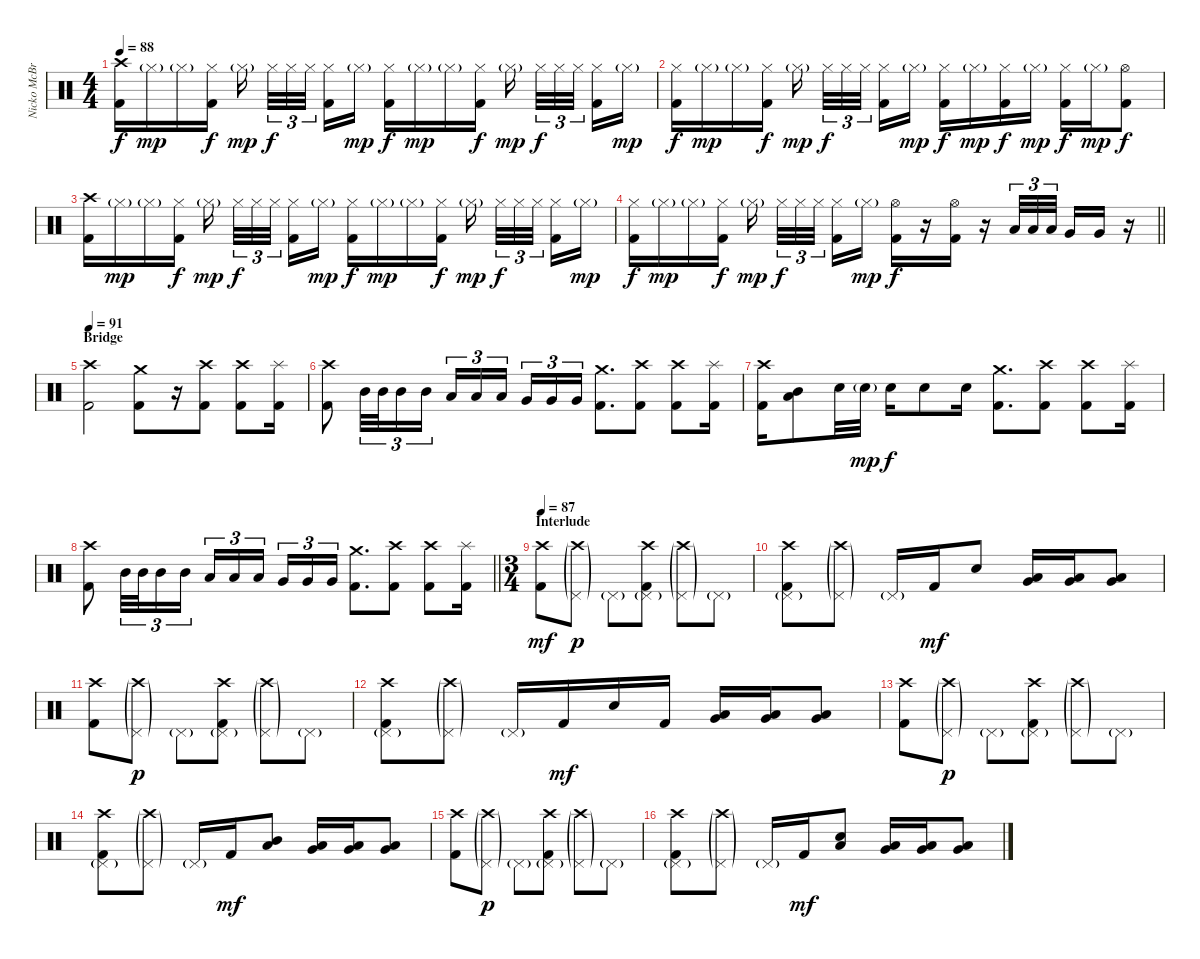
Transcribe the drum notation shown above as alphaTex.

\track ("Nicko McBrian" "Nicko McBr") {instrument percussion}
\staff {score}
\articulation defaults
\ts (4 4)
\tempo 88
\clef neutral
\ks c
("Crash high (hit)" "Kick (hit) 2").16{dy f} "Hi-Hat (closed)"{g}.16{dy mp} "Hi-Hat (closed)"{g}.16 ("Hi-Hat (closed)" "Kick (hit) 2").16{dy f} "Hi-Hat (closed)"{g}.16{dy mp beam splitsecondary} "Hi-Hat (closed)".32{tu (3 2) dy f} "Hi-Hat (closed)".32{tu (3 2)} "Hi-Hat (closed)".32{tu (3 2) beam splitsecondary} ("Hi-Hat (closed)" "Kick (hit) 2").16 "Hi-Hat (closed)"{g}.16{dy mp} ("Hi-Hat (closed)" "Kick (hit) 2").16{dy f} "Hi-Hat (closed)"{g}.16{dy mp} "Hi-Hat (closed)"{g}.16 ("Hi-Hat (closed)" "Kick (hit) 2").16{dy f} "Hi-Hat (closed)"{g}.16{dy mp beam splitsecondary} "Hi-Hat (closed)".32{tu (3 2) dy f} "Hi-Hat (closed)".32{tu (3 2)} "Hi-Hat (closed)".32{tu (3 2) beam splitsecondary} ("Hi-Hat (closed)" "Kick (hit) 2").16 "Hi-Hat (closed)"{g}.16{dy mp} |
("Hi-Hat (closed)" "Kick (hit) 2").16{dy f} "Hi-Hat (closed)"{g}.16{dy mp} "Hi-Hat (closed)"{g}.16 ("Hi-Hat (closed)" "Kick (hit) 2").16{dy f} "Hi-Hat (closed)"{g}.16{dy mp beam splitsecondary} "Hi-Hat (closed)".32{tu (3 2) dy f} "Hi-Hat (closed)".32{tu (3 2)} "Hi-Hat (closed)".32{tu (3 2) beam splitsecondary} ("Hi-Hat (closed)" "Kick (hit) 2").16 "Hi-Hat (closed)"{g}.16{dy mp} ("Hi-Hat (closed)" "Kick (hit) 2").16{dy f} "Hi-Hat (closed)"{g}.16{dy mp} ("Hi-Hat (closed)" "Kick (hit) 2").16{dy f} "Hi-Hat (closed)"{g}.16{dy mp} ("Hi-Hat (closed)" "Kick (hit) 2").16{dy f} "Hi-Hat (closed)"{g}.16{dy mp} ("Hi-Hat (open)" "Kick (hit) 2").8{dy f} |
("Crash high (hit)" "Kick (hit) 2").16 "Hi-Hat (closed)"{g}.16{dy mp} "Hi-Hat (closed)"{g}.16 ("Hi-Hat (closed)" "Kick (hit) 2").16{dy f} "Hi-Hat (closed)"{g}.16{dy mp beam splitsecondary} "Hi-Hat (closed)".32{tu (3 2) dy f} "Hi-Hat (closed)".32{tu (3 2)} "Hi-Hat (closed)".32{tu (3 2) beam splitsecondary} ("Hi-Hat (closed)" "Kick (hit) 2").16 "Hi-Hat (closed)"{g}.16{dy mp} ("Hi-Hat (closed)" "Kick (hit) 2").16{dy f} "Hi-Hat (closed)"{g}.16{dy mp} "Hi-Hat (closed)"{g}.16 ("Hi-Hat (closed)" "Kick (hit) 2").16{dy f} "Hi-Hat (closed)"{g}.16{dy mp beam splitsecondary} "Hi-Hat (closed)".32{tu (3 2) dy f} "Hi-Hat (closed)".32{tu (3 2)} "Hi-Hat (closed)".32{tu (3 2) beam splitsecondary} ("Hi-Hat (closed)" "Kick (hit) 2").16 "Hi-Hat (closed)"{g}.16{dy mp} |
\barLineRight lightlight
("Hi-Hat (closed)" "Kick (hit) 2").16{dy f} "Hi-Hat (closed)"{g}.16{dy mp} "Hi-Hat (closed)"{g}.16 ("Hi-Hat (closed)" "Kick (hit) 2").16{dy f} "Hi-Hat (closed)"{g}.16{dy mp beam splitsecondary} "Hi-Hat (closed)".32{tu (3 2) dy f} "Hi-Hat (closed)".32{tu (3 2)} "Hi-Hat (closed)".32{tu (3 2) beam splitsecondary} ("Hi-Hat (closed)" "Kick (hit) 2").16 "Hi-Hat (closed)"{g}.16{dy mp} ("Hi-Hat (open)" "Kick (hit) 2").16{dy f} r.16 ("Hi-Hat (open)" "Kick (hit) 2").16 r.16 "Low Tom (hit)".32{tu (3 2)} "Low Tom (hit)".32{tu (3 2)} "Low Tom (hit)".32{tu (3 2) beam splitsecondary} "Very Low Tom (hit)".16 "Very Low Tom (hit)".16 r.16 |
\section ("" "Bridge")
\tempo 91
("Crash high (hit)" "Kick (hit) 2").2 ("Crash medium (hit)" "Kick (hit) 2").8 r.16 ("Crash high (hit)" "Kick (hit) 2").8 ("Crash high (hit)" "Kick (hit) 2").8 ("Splash (hit)" "Kick (hit) 2").16 |
("Crash high (hit)" "Kick (hit) 2").8 "Mid Tom (hit)".32{tu (3 2)} "Mid Tom (hit)".32{tu (3 2)} "Mid Tom (hit)".16{tu (3 2)} "Mid Tom (hit)".16{tu (3 2)} "Low Tom (hit)".16{tu (3 2)} "Low Tom (hit)".16{tu (3 2)} "Low Tom (hit)".16{tu (3 2) beam splitsecondary} "Very Low Tom (hit)".16{tu (3 2)} "Very Low Tom (hit)".16{tu (3 2)} "Very Low Tom (hit)".16{tu (3 2)} ("Crash medium (hit)" "Kick (hit) 2").8{d} ("Crash high (hit)" "Kick (hit) 2").8 ("Crash high (hit)" "Kick (hit) 2").8 ("Splash (hit)" "Kick (hit) 2").16 |
("Crash high (hit)" "Kick (hit) 2").16 ("Mid Tom (hit)" "Low Tom (hit)").8 "Snare (hit) 2".32 "Snare (hit) 2"{g}.32{dy mp} "Snare (hit) 2".16{dy f} "Snare (hit) 2".8 "Snare (hit) 2".16 ("Crash medium (hit)" "Kick (hit) 2").8{d} ("Crash high (hit)" "Kick (hit) 2").8 ("Crash high (hit)" "Kick (hit) 2").8 ("Splash (hit)" "Kick (hit) 2").16 |
\barLineRight lightlight
("Crash high (hit)" "Kick (hit) 2").8 "Mid Tom (hit)".32{tu (3 2)} "Mid Tom (hit)".32{tu (3 2)} "Mid Tom (hit)".16{tu (3 2)} "Mid Tom (hit)".16{tu (3 2)} "Low Tom (hit)".16{tu (3 2)} "Low Tom (hit)".16{tu (3 2)} "Low Tom (hit)".16{tu (3 2) beam splitsecondary} "Very Low Tom (hit)".16{tu (3 2)} "Very Low Tom (hit)".16{tu (3 2)} "Very Low Tom (hit)".16{tu (3 2)} ("Crash medium (hit)" "Kick (hit) 2").8{d} ("Crash high (hit)" "Kick (hit) 2").8 ("Crash high (hit)" "Kick (hit) 2").8 ("Splash (hit)" "Kick (hit) 2").16 |
\ts (3 4)
\section ("" "Interlude")
\tempo 87
("Crash high (hit)" "Kick (hit) 2").8{dy mf} ("Crash high (hit)"{g} "Pedal Hi-Hat (hit)"{g}).8{dy p} "Pedal Hi-Hat (hit)"{g}.8 ("Crash high (hit)" "Pedal Hi-Hat (hit)"{g} "Kick (hit) 2").8 ("Crash high (hit)"{g} "Pedal Hi-Hat (hit)"{g}).8 "Pedal Hi-Hat (hit)"{g}.8 |
("Crash high (hit)" "Pedal Hi-Hat (hit)"{g} "Kick (hit) 2").8 ("Crash high (hit)"{g} "Pedal Hi-Hat (hit)"{g}).8 "Pedal Hi-Hat (hit)"{g}.16 "Kick (hit) 2".16{dy mf} "Snare (hit) 2".8 ("Low Tom (hit)" "Very Low Tom (hit)").16 ("Low Tom (hit)" "Very Low Tom (hit)").16 ("Very Low Tom (hit)" "Low Floor Tom (hit)").8 |
("Crash high (hit)" "Kick (hit) 2").8 ("Crash high (hit)"{g} "Pedal Hi-Hat (hit)"{g}).8{dy p} "Pedal Hi-Hat (hit)"{g}.8 ("Crash high (hit)" "Pedal Hi-Hat (hit)"{g} "Kick (hit) 2").8 ("Crash high (hit)"{g} "Pedal Hi-Hat (hit)"{g}).8 "Pedal Hi-Hat (hit)"{g}.8 |
("Crash high (hit)" "Pedal Hi-Hat (hit)"{g} "Kick (hit) 2").8 ("Crash high (hit)"{g} "Pedal Hi-Hat (hit)"{g}).8 "Pedal Hi-Hat (hit)"{g}.16 "Kick (hit) 2".16{dy mf} "Snare (hit) 2".16 "Kick (hit) 2".16 ("Low Tom (hit)" "Very Low Tom (hit)").16 ("Low Tom (hit)" "Very Low Tom (hit)").16 ("Very Low Tom (hit)" "Low Floor Tom (hit)").8 |
("Crash high (hit)" "Kick (hit) 2").8 ("Crash high (hit)"{g} "Pedal Hi-Hat (hit)"{g}).8{dy p} "Pedal Hi-Hat (hit)"{g}.8 ("Crash high (hit)" "Pedal Hi-Hat (hit)"{g} "Kick (hit) 2").8 ("Crash high (hit)"{g} "Pedal Hi-Hat (hit)"{g}).8 "Pedal Hi-Hat (hit)"{g}.8 |
("Crash high (hit)" "Pedal Hi-Hat (hit)"{g} "Kick (hit) 2").8 ("Crash high (hit)"{g} "Pedal Hi-Hat (hit)"{g}).8 "Pedal Hi-Hat (hit)"{g}.16 "Kick (hit) 2".16{dy mf} ("Mid Tom (hit)" "Low Tom (hit)").8 ("Low Tom (hit)" "Very Low Tom (hit)").16 ("Low Tom (hit)" "Very Low Tom (hit)").16 ("Very Low Tom (hit)" "Low Floor Tom (hit)").8 |
("Crash high (hit)" "Kick (hit) 2").8 ("Crash high (hit)"{g} "Pedal Hi-Hat (hit)"{g}).8{dy p} "Pedal Hi-Hat (hit)"{g}.8 ("Crash high (hit)" "Pedal Hi-Hat (hit)"{g} "Kick (hit) 2").8 ("Crash high (hit)"{g} "Pedal Hi-Hat (hit)"{g}).8 "Pedal Hi-Hat (hit)"{g}.8 |
("Crash high (hit)" "Pedal Hi-Hat (hit)"{g} "Kick (hit) 2").8 ("Crash high (hit)"{g} "Pedal Hi-Hat (hit)"{g}).8 "Pedal Hi-Hat (hit)"{g}.16 "Kick (hit) 2".16{dy mf} ("Low Floor Tom (hit)" "Snare (hit) 2").8 ("Low Tom (hit)" "Very Low Tom (hit)").16 ("Low Tom (hit)" "Very Low Tom (hit)").16 ("Very Low Tom (hit)" "Low Floor Tom (hit)").8
